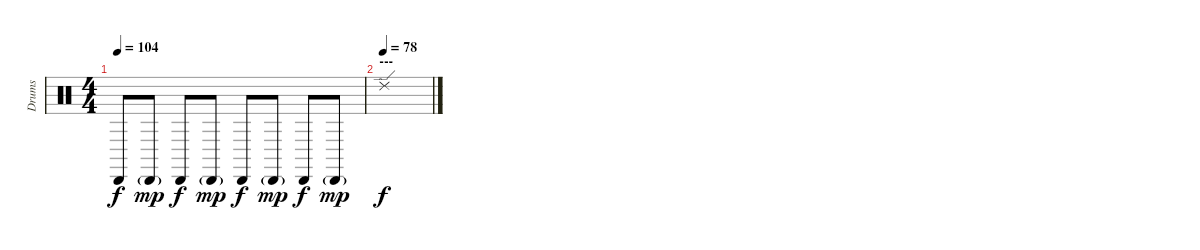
\track ("Drums" "Drums") {instrument percussion}
\staff {score}
\articulation defaults
\ts (4 4)
\tempo 104
\clef neutral
\ks c "Cabasa (hit)".8{dy f} "Cabasa (hit)"{g}.8{dy mp} "Cabasa (hit)".8{dy f} "Cabasa (hit)"{g}.8{dy mp} "Cabasa (hit)".8{dy f} "Cabasa (hit)"{g}.8{dy mp} "Cabasa (hit)".8{dy f} "Cabasa (hit)"{g}.8{dy mp}
|
\section ("" "---")
\tempo (78)
"Ride (edge) 2".1{dy f}
